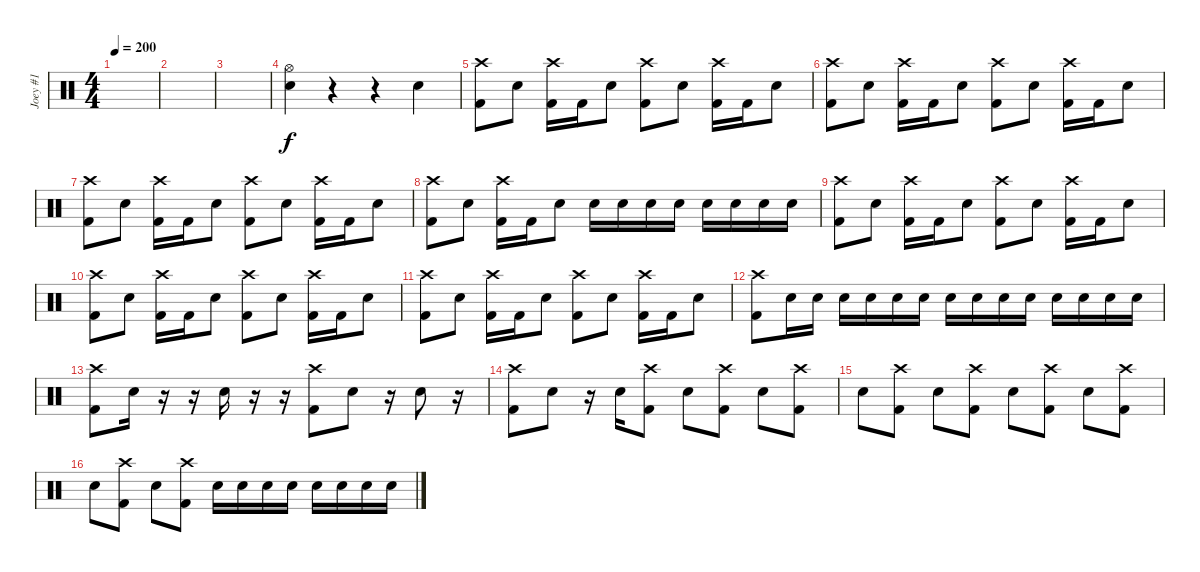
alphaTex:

\track ("Joey #1" "Joey #1") {instrument percussion}
\staff {score}
\articulation defaults
\ts (4 4)
\tempo 200
\clef neutral
\ks c
|
|
|
("Hi-Hat (open)" "Electric Snare (hit)").4 r.4 r.4 "Electric Snare (hit)".4 |
("Crash high (hit)" "Kick (hit) 2").8 "Electric Snare (hit)".8 ("Crash high (hit)" "Kick (hit) 2").16 "Kick (hit) 2".16 "Electric Snare (hit)".8 ("Crash high (hit)" "Kick (hit) 2").8 "Electric Snare (hit)".8 ("Crash high (hit)" "Kick (hit) 2").16 "Kick (hit) 2".16 "Electric Snare (hit)".8 |
("Crash high (hit)" "Kick (hit) 2").8 "Electric Snare (hit)".8 ("Crash high (hit)" "Kick (hit) 2").16 "Kick (hit) 2".16 "Electric Snare (hit)".8 ("Crash high (hit)" "Kick (hit) 2").8 "Electric Snare (hit)".8 ("Crash high (hit)" "Kick (hit) 2").16 "Kick (hit) 2".16 "Electric Snare (hit)".8 |
("Crash high (hit)" "Kick (hit) 2").8 "Electric Snare (hit)".8 ("Crash high (hit)" "Kick (hit) 2").16 "Kick (hit) 2".16 "Electric Snare (hit)".8 ("Crash high (hit)" "Kick (hit) 2").8 "Electric Snare (hit)".8 ("Crash high (hit)" "Kick (hit) 2").16 "Kick (hit) 2".16 "Electric Snare (hit)".8 |
("Crash high (hit)" "Kick (hit) 2").8 "Electric Snare (hit)".8 ("Crash high (hit)" "Kick (hit) 2").16 "Kick (hit) 2".16 "Electric Snare (hit)".8 "Electric Snare (hit)".16 "Electric Snare (hit)".16 "Electric Snare (hit)".16 "Electric Snare (hit)".16 "Electric Snare (hit)".16 "Electric Snare (hit)".16 "Electric Snare (hit)".16 "Electric Snare (hit)".16 |
("Crash high (hit)" "Kick (hit) 2").8 "Electric Snare (hit)".8 ("Crash high (hit)" "Kick (hit) 2").16 "Kick (hit) 2".16 "Electric Snare (hit)".8 ("Crash high (hit)" "Kick (hit) 2").8 "Electric Snare (hit)".8 ("Crash high (hit)" "Kick (hit) 2").16 "Kick (hit) 2".16 "Electric Snare (hit)".8 |
("Crash high (hit)" "Kick (hit) 2").8 "Electric Snare (hit)".8 ("Crash high (hit)" "Kick (hit) 2").16 "Kick (hit) 2".16 "Electric Snare (hit)".8 ("Crash high (hit)" "Kick (hit) 2").8 "Electric Snare (hit)".8 ("Crash high (hit)" "Kick (hit) 2").16 "Kick (hit) 2".16 "Electric Snare (hit)".8 |
("Crash high (hit)" "Kick (hit) 2").8 "Electric Snare (hit)".8 ("Crash high (hit)" "Kick (hit) 2").16 "Kick (hit) 2".16 "Electric Snare (hit)".8 ("Crash high (hit)" "Kick (hit) 2").8 "Electric Snare (hit)".8 ("Crash high (hit)" "Kick (hit) 2").16 "Kick (hit) 2".16 "Electric Snare (hit)".8 |
("Crash high (hit)" "Kick (hit) 2").8 "Electric Snare (hit)".16 "Electric Snare (hit)".16 "Electric Snare (hit)".16 "Electric Snare (hit)".16 "Electric Snare (hit)".16 "Electric Snare (hit)".16 "Electric Snare (hit)".16 "Electric Snare (hit)".16 "Electric Snare (hit)".16 "Electric Snare (hit)".16 "Electric Snare (hit)".16 "Electric Snare (hit)".16 "Electric Snare (hit)".16 "Electric Snare (hit)".16 |
("Crash high (hit)" "Kick (hit) 2").8 "Electric Snare (hit)".16 r.16 r.16 "Electric Snare (hit)".16 r.16 r.16 ("Crash high (hit)" "Kick (hit) 2").8 "Electric Snare (hit)".8 r.16 "Electric Snare (hit)".8 r.16 |
("Crash high (hit)" "Kick (hit) 2").8 "Electric Snare (hit)".8 r.16 "Electric Snare (hit)".16 ("Crash high (hit)" "Kick (hit) 2").8 "Electric Snare (hit)".8 ("Crash high (hit)" "Kick (hit) 2").8 "Electric Snare (hit)".8 ("Crash high (hit)" "Kick (hit) 2").8 |
"Electric Snare (hit)".8 ("Crash high (hit)" "Kick (hit) 2").8 "Electric Snare (hit)".8 ("Crash high (hit)" "Kick (hit) 2").8 "Electric Snare (hit)".8 ("Crash high (hit)" "Kick (hit) 2").8 "Electric Snare (hit)".8 ("Crash high (hit)" "Kick (hit) 2").8 |
"Electric Snare (hit)".8 ("Crash high (hit)" "Kick (hit) 2").8 "Electric Snare (hit)".8 ("Crash high (hit)" "Kick (hit) 2").8 "Electric Snare (hit)".16 "Electric Snare (hit)".16 "Electric Snare (hit)".16 "Electric Snare (hit)".16 "Electric Snare (hit)".16 "Electric Snare (hit)".16 "Electric Snare (hit)".16 "Electric Snare (hit)".16
